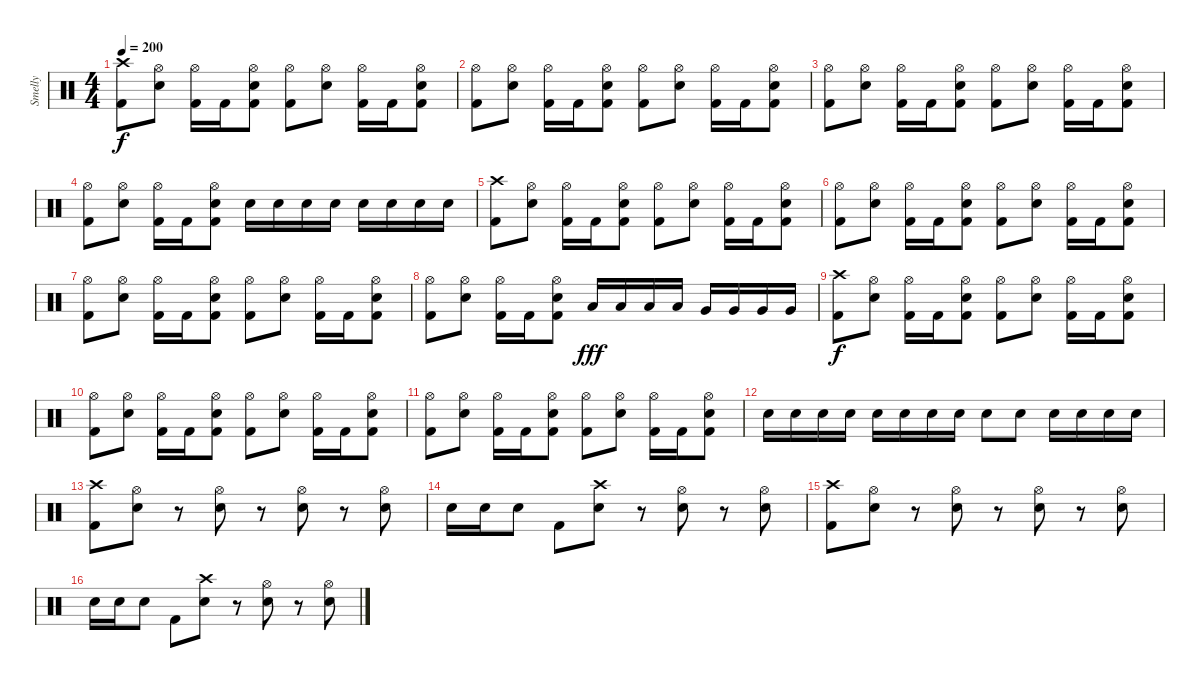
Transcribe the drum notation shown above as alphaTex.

\track ("Smelly" "Smelly") {instrument percussion}
\staff {score}
\articulation defaults
\ts (4 4)
\tempo 200
\clef neutral
\ks c
("Crash high (hit)" "Kick (hit) 2").8{dy f} ("Hi-Hat (open)" "Electric Snare (hit)").8 ("Hi-Hat (open)" "Kick (hit) 2").16 "Kick (hit) 2".16 ("Hi-Hat (open)" "Electric Snare (hit)" "Kick (hit) 2").8 ("Hi-Hat (open)" "Kick (hit) 2").8 ("Hi-Hat (open)" "Electric Snare (hit)").8 ("Hi-Hat (open)" "Kick (hit) 2").16 "Kick (hit) 2".16 ("Hi-Hat (open)" "Electric Snare (hit)" "Kick (hit) 2").8 |
("Hi-Hat (open)" "Kick (hit) 2").8 ("Hi-Hat (open)" "Electric Snare (hit)").8 ("Hi-Hat (open)" "Kick (hit) 2").16 "Kick (hit) 2".16 ("Hi-Hat (open)" "Electric Snare (hit)" "Kick (hit) 2").8 ("Hi-Hat (open)" "Kick (hit) 2").8 ("Hi-Hat (open)" "Electric Snare (hit)").8 ("Hi-Hat (open)" "Kick (hit) 2").16 "Kick (hit) 2".16 ("Hi-Hat (open)" "Electric Snare (hit)" "Kick (hit) 2").8 |
("Hi-Hat (open)" "Kick (hit) 2").8 ("Hi-Hat (open)" "Electric Snare (hit)").8 ("Hi-Hat (open)" "Kick (hit) 2").16 "Kick (hit) 2".16 ("Hi-Hat (open)" "Electric Snare (hit)" "Kick (hit) 2").8 ("Hi-Hat (open)" "Kick (hit) 2").8 ("Hi-Hat (open)" "Electric Snare (hit)").8 ("Hi-Hat (open)" "Kick (hit) 2").16 "Kick (hit) 2".16 ("Hi-Hat (open)" "Electric Snare (hit)" "Kick (hit) 2").8 |
("Hi-Hat (open)" "Kick (hit) 2").8 ("Hi-Hat (open)" "Electric Snare (hit)").8 ("Hi-Hat (open)" "Kick (hit) 2").16 "Kick (hit) 2".16 ("Hi-Hat (open)" "Electric Snare (hit)" "Kick (hit) 2").8 "Electric Snare (hit)".16 "Electric Snare (hit)".16 "Electric Snare (hit)".16 "Electric Snare (hit)".16 "Electric Snare (hit)".16 "Electric Snare (hit)".16 "Electric Snare (hit)".16 "Electric Snare (hit)".16 |
("Crash high (hit)" "Kick (hit) 2").8 ("Hi-Hat (open)" "Electric Snare (hit)").8 ("Hi-Hat (open)" "Kick (hit) 2").16 "Kick (hit) 2".16 ("Hi-Hat (open)" "Electric Snare (hit)" "Kick (hit) 2").8 ("Hi-Hat (open)" "Kick (hit) 2").8 ("Hi-Hat (open)" "Electric Snare (hit)").8 ("Hi-Hat (open)" "Kick (hit) 2").16 "Kick (hit) 2".16 ("Hi-Hat (open)" "Electric Snare (hit)" "Kick (hit) 2").8 |
("Hi-Hat (open)" "Kick (hit) 2").8 ("Hi-Hat (open)" "Electric Snare (hit)").8 ("Hi-Hat (open)" "Kick (hit) 2").16 "Kick (hit) 2".16 ("Hi-Hat (open)" "Electric Snare (hit)" "Kick (hit) 2").8 ("Hi-Hat (open)" "Kick (hit) 2").8 ("Hi-Hat (open)" "Electric Snare (hit)").8 ("Hi-Hat (open)" "Kick (hit) 2").16 "Kick (hit) 2".16 ("Hi-Hat (open)" "Electric Snare (hit)" "Kick (hit) 2").8 |
("Hi-Hat (open)" "Kick (hit) 2").8 ("Hi-Hat (open)" "Electric Snare (hit)").8 ("Hi-Hat (open)" "Kick (hit) 2").16 "Kick (hit) 2".16 ("Hi-Hat (open)" "Electric Snare (hit)" "Kick (hit) 2").8 ("Hi-Hat (open)" "Kick (hit) 2").8 ("Hi-Hat (open)" "Electric Snare (hit)").8 ("Hi-Hat (open)" "Kick (hit) 2").16 "Kick (hit) 2".16 ("Hi-Hat (open)" "Electric Snare (hit)" "Kick (hit) 2").8 |
("Hi-Hat (open)" "Kick (hit) 2").8 ("Hi-Hat (open)" "Electric Snare (hit)").8 ("Hi-Hat (open)" "Kick (hit) 2").16 "Kick (hit) 2".16 ("Hi-Hat (open)" "Electric Snare (hit)" "Kick (hit) 2").8 "Low Tom (hit)".16{dy fff} "Low Tom (hit)".16 "Low Tom (hit)".16 "Low Tom (hit)".16 "Very Low Tom (hit)".16 "Very Low Tom (hit)".16 "Very Low Tom (hit)".16 "Very Low Tom (hit)".16 |
("Crash high (hit)" "Kick (hit) 2").8{dy f} ("Hi-Hat (open)" "Electric Snare (hit)").8 ("Hi-Hat (open)" "Kick (hit) 2").16 "Kick (hit) 2".16 ("Hi-Hat (open)" "Electric Snare (hit)" "Kick (hit) 2").8 ("Hi-Hat (open)" "Kick (hit) 2").8 ("Hi-Hat (open)" "Electric Snare (hit)").8 ("Hi-Hat (open)" "Kick (hit) 2").16 "Kick (hit) 2".16 ("Hi-Hat (open)" "Electric Snare (hit)" "Kick (hit) 2").8 |
("Hi-Hat (open)" "Kick (hit) 2").8 ("Hi-Hat (open)" "Electric Snare (hit)").8 ("Hi-Hat (open)" "Kick (hit) 2").16 "Kick (hit) 2".16 ("Hi-Hat (open)" "Electric Snare (hit)" "Kick (hit) 2").8 ("Hi-Hat (open)" "Kick (hit) 2").8 ("Hi-Hat (open)" "Electric Snare (hit)").8 ("Hi-Hat (open)" "Kick (hit) 2").16 "Kick (hit) 2".16 ("Hi-Hat (open)" "Electric Snare (hit)" "Kick (hit) 2").8 |
("Hi-Hat (open)" "Kick (hit) 2").8 ("Hi-Hat (open)" "Electric Snare (hit)").8 ("Hi-Hat (open)" "Kick (hit) 2").16 "Kick (hit) 2".16 ("Hi-Hat (open)" "Electric Snare (hit)" "Kick (hit) 2").8 ("Hi-Hat (open)" "Kick (hit) 2").8 ("Hi-Hat (open)" "Electric Snare (hit)").8 ("Hi-Hat (open)" "Kick (hit) 2").16 "Kick (hit) 2".16 ("Hi-Hat (open)" "Electric Snare (hit)" "Kick (hit) 2").8 |
"Electric Snare (hit)".16 "Electric Snare (hit)".16 "Electric Snare (hit)".16 "Electric Snare (hit)".16 "Electric Snare (hit)".16 "Electric Snare (hit)".16 "Electric Snare (hit)".16 "Electric Snare (hit)".16 "Electric Snare (hit)".8 "Electric Snare (hit)".8 "Electric Snare (hit)".16 "Electric Snare (hit)".16 "Electric Snare (hit)".16 "Electric Snare (hit)".16 |
("Crash high (hit)" "Kick (hit) 2").8 ("Hi-Hat (open)" "Electric Snare (hit)").8 r.8 ("Hi-Hat (open)" "Electric Snare (hit)").8 r.8 ("Hi-Hat (open)" "Electric Snare (hit)").8 r.8 ("Hi-Hat (open)" "Electric Snare (hit)").8 |
"Electric Snare (hit)".16 "Electric Snare (hit)".16 "Electric Snare (hit)".8 "Kick (hit) 2".8 ("Crash high (hit)" "Electric Snare (hit)").8 r.8 ("Hi-Hat (open)" "Electric Snare (hit)").8 r.8 ("Hi-Hat (open)" "Electric Snare (hit)").8 |
("Crash high (hit)" "Kick (hit) 2").8 ("Hi-Hat (open)" "Electric Snare (hit)").8 r.8 ("Hi-Hat (open)" "Electric Snare (hit)").8 r.8 ("Hi-Hat (open)" "Electric Snare (hit)").8 r.8 ("Hi-Hat (open)" "Electric Snare (hit)").8 |
"Electric Snare (hit)".16 "Electric Snare (hit)".16 "Electric Snare (hit)".8 "Kick (hit) 2".8 ("Crash high (hit)" "Electric Snare (hit)").8 r.8 ("Hi-Hat (open)" "Electric Snare (hit)").8 r.8 ("Hi-Hat (open)" "Electric Snare (hit)").8
